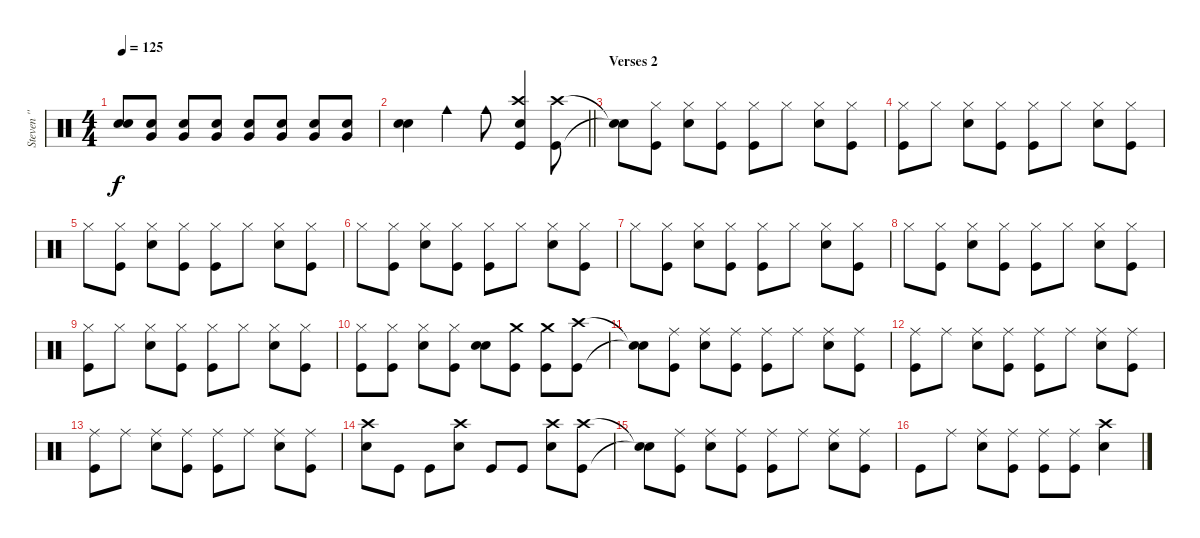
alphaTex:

\track ("Steven '' Popcorn '' Adler" "Steven '' ") {instrument percussion}
\staff {score}
\articulation defaults
\ts (4 4)
\tempo 125
\clef neutral
\ks c
("Snare (hit) 2" "Snare (hit) 2").8{dy f} ("Snare (hit) 2" "Very Low Tom (hit)").8 ("Snare (hit) 2" "Very Low Tom (hit)").8 ("Snare (hit) 2" "Very Low Tom (hit)").8 ("Snare (hit) 2" "Very Low Tom (hit)").8 ("Snare (hit) 2" "Very Low Tom (hit)").8 ("Snare (hit) 2" "Very Low Tom (hit)").8 ("Snare (hit) 2" "Very Low Tom (hit)").8 |
\barLineRight lightlight
("Snare (hit) 2" "Snare (hit) 2").4 "Cowbell medium (hit)".4 "Cowbell medium (hit)".8 ("Crash high (hit)" "Kick (hit)" "Snare (hit)").4 ("Crash high (hit)" "Kick (hit)").8 |
\section ("" "Verses 2")
("Snare (hit)"{t} "Snare (hit)"{t}).8 ("Hi-Hat (closed)" "Kick (hit)").8 ("Hi-Hat (closed)" "Snare (hit) 2").8 ("Hi-Hat (closed)" "Kick (hit)").8 ("Hi-Hat (closed)" "Kick (hit)").8 "Hi-Hat (closed)".8 ("Hi-Hat (closed)" "Snare (hit) 2").8 ("Hi-Hat (closed)" "Kick (hit)").8 |
("Hi-Hat (closed)" "Kick (hit)").8 "Hi-Hat (closed)".8 ("Hi-Hat (closed)" "Snare (hit) 2").8 ("Hi-Hat (closed)" "Kick (hit)").8 ("Hi-Hat (closed)" "Kick (hit)").8 "Hi-Hat (closed)".8 ("Hi-Hat (closed)" "Snare (hit) 2").8 ("Hi-Hat (closed)" "Kick (hit)").8 |
"Hi-Hat (closed)".8 ("Hi-Hat (closed)" "Kick (hit)").8 ("Hi-Hat (closed)" "Snare (hit) 2").8 ("Hi-Hat (closed)" "Kick (hit)").8 ("Hi-Hat (closed)" "Kick (hit)").8 "Hi-Hat (closed)".8 ("Hi-Hat (closed)" "Snare (hit) 2").8 ("Hi-Hat (closed)" "Kick (hit)").8 |
"Hi-Hat (closed)".8 ("Hi-Hat (closed)" "Kick (hit)").8 ("Hi-Hat (closed)" "Snare (hit) 2").8 ("Hi-Hat (closed)" "Kick (hit)").8 ("Hi-Hat (closed)" "Kick (hit)").8 "Hi-Hat (closed)".8 ("Hi-Hat (closed)" "Snare (hit) 2").8 ("Hi-Hat (closed)" "Kick (hit)").8 |
"Hi-Hat (closed)".8 ("Hi-Hat (closed)" "Kick (hit)").8 ("Hi-Hat (closed)" "Snare (hit) 2").8 ("Hi-Hat (closed)" "Kick (hit)").8 ("Hi-Hat (closed)" "Kick (hit)").8 "Hi-Hat (closed)".8 ("Hi-Hat (closed)" "Snare (hit) 2").8 ("Hi-Hat (closed)" "Kick (hit)").8 |
"Hi-Hat (closed)".8 ("Hi-Hat (closed)" "Kick (hit)").8 ("Hi-Hat (closed)" "Snare (hit) 2").8 ("Hi-Hat (closed)" "Kick (hit)").8 ("Hi-Hat (closed)" "Kick (hit)").8 "Hi-Hat (closed)".8 ("Hi-Hat (closed)" "Snare (hit) 2").8 ("Hi-Hat (closed)" "Kick (hit)").8 |
("Hi-Hat (closed)" "Kick (hit)").8 "Hi-Hat (closed)".8 ("Hi-Hat (closed)" "Snare (hit) 2").8 ("Hi-Hat (closed)" "Kick (hit)").8 ("Hi-Hat (closed)" "Kick (hit)").8 "Hi-Hat (closed)".8 ("Hi-Hat (closed)" "Snare (hit) 2").8 ("Hi-Hat (closed)" "Kick (hit)").8 |
("Hi-Hat (closed)" "Kick (hit)").8 ("Hi-Hat (closed)" "Kick (hit)").8 ("Hi-Hat (closed)" "Snare (hit) 2").8 ("Hi-Hat (closed)" "Kick (hit)").8 ("Snare (hit) 2" "Snare (hit) 2").8 ("Crash medium (hit)" "Kick (hit)").8 ("Crash medium (hit)" "Kick (hit)").8 ("Crash high (hit)" "Kick (hit)").8 |
("Snare (hit)"{t} "Snare (hit)"{t}).8 ("Ride (middle)" "Kick (hit)").8 ("Ride (middle)" "Snare (hit) 2").8 ("Ride (middle)" "Kick (hit)").8 ("Ride (middle)" "Kick (hit)").8 "Ride (middle)".8 ("Ride (middle)" "Snare (hit) 2").8 ("Ride (middle)" "Kick (hit)").8 |
("Ride (middle)" "Kick (hit)").8 "Ride (middle)".8 ("Ride (middle)" "Snare (hit) 2").8 ("Ride (middle)" "Kick (hit)").8 ("Ride (middle)" "Kick (hit)").8 "Ride (middle)".8 ("Ride (middle)" "Snare (hit) 2").8 ("Ride (middle)" "Kick (hit)").8 |
("Ride (middle)" "Kick (hit)").8 "Ride (middle)".8 ("Ride (middle)" "Snare (hit) 2").8 ("Ride (middle)" "Kick (hit)").8 ("Ride (middle)" "Kick (hit)").8 "Ride (middle)".8 ("Ride (middle)" "Snare (hit) 2").8 ("Ride (middle)" "Kick (hit)").8 |
("Crash high (hit)" "Snare (hit) 2").8 "Kick (hit)".8 "Kick (hit)".8 ("Crash high (hit)" "Snare (hit) 2").8 "Kick (hit)".8 "Kick (hit)".8 ("Crash high (hit)" "Snare (hit) 2").8 ("Crash high (hit)" "Kick (hit)").8 |
("Snare (hit)"{t} "Snare (hit)"{t}).8 ("Ride (middle)" "Kick (hit)").8 ("Ride (middle)" "Snare (hit) 2").8 ("Ride (middle)" "Kick (hit)").8 ("Ride (middle)" "Kick (hit)").8 "Ride (middle)".8 ("Ride (middle)" "Snare (hit) 2").8 ("Ride (middle)" "Kick (hit)").8 |
"Kick (hit)".8 "Ride (middle)".8 ("Ride (middle)" "Snare (hit) 2").8 ("Ride (middle)" "Kick (hit)").8 ("Ride (middle)" "Kick (hit)").8 ("Ride (middle)" "Kick (hit)").8 ("Crash high (hit)" "Snare (hit) 2").4
